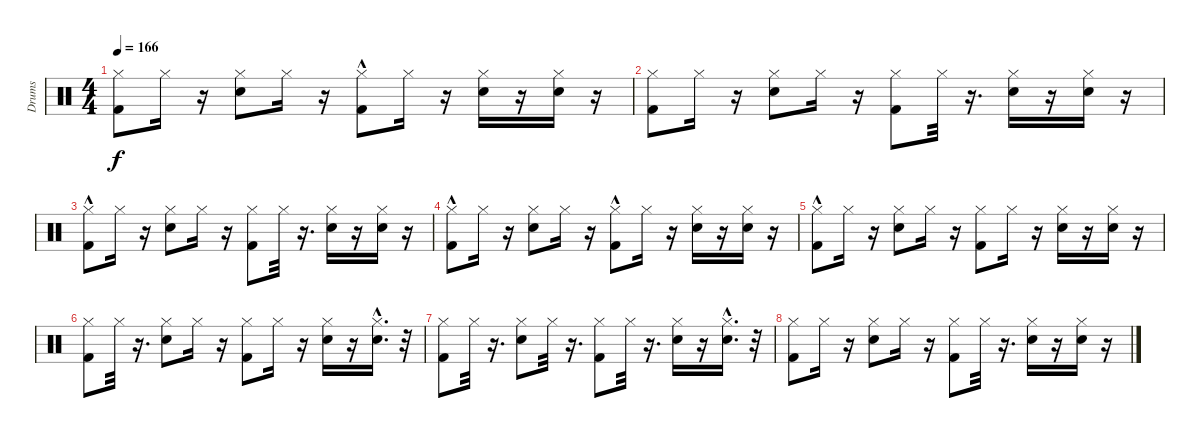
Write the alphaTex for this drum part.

\track ("Drums" "Drums") {instrument percussion}
\staff {score}
\articulation defaults
\ts (4 4)
\tempo 166
\clef neutral
\ks c
("Kick (hit) 2" "Hi-Hat (closed)").8{dy f} "Hi-Hat (closed)".16 r.16 ("Hi-Hat (closed)" "Snare (hit) 2").8 "Hi-Hat (closed)".16 r.16 ("Kick (hit) 2"{hac} "Hi-Hat (closed)").8 "Hi-Hat (closed)".16 r.16 ("Hi-Hat (closed)" "Snare (hit) 2").16 r.16 ("Hi-Hat (closed)" "Snare (hit) 2").16 r.16 |
("Kick (hit) 2" "Hi-Hat (closed)").8 "Hi-Hat (closed)".16 r.16 ("Hi-Hat (closed)" "Snare (hit) 2").8 "Hi-Hat (closed)".16 r.16 ("Kick (hit) 2" "Hi-Hat (closed)").8 "Hi-Hat (closed)".32 r.16{d} ("Hi-Hat (closed)" "Snare (hit) 2").16 r.16 ("Hi-Hat (closed)" "Snare (hit) 2").16 r.16 |
("Kick (hit) 2"{hac} "Hi-Hat (closed)").8 "Hi-Hat (closed)".16 r.16 ("Hi-Hat (closed)" "Snare (hit) 2").8 "Hi-Hat (closed)".16 r.16 ("Kick (hit) 2" "Hi-Hat (closed)").8 "Hi-Hat (closed)".32 r.16{d} ("Hi-Hat (closed)" "Snare (hit) 2").16 r.16 ("Hi-Hat (closed)" "Snare (hit) 2").16 r.16 |
("Kick (hit) 2"{hac} "Hi-Hat (closed)").8 "Hi-Hat (closed)".16 r.16 ("Hi-Hat (closed)" "Snare (hit) 2").8 "Hi-Hat (closed)".16 r.16 ("Kick (hit) 2"{hac} "Hi-Hat (closed)").8 "Hi-Hat (closed)".16 r.16 ("Hi-Hat (closed)" "Snare (hit) 2").16 r.16 ("Hi-Hat (closed)" "Snare (hit) 2").16 r.16 |
("Kick (hit) 2"{hac} "Hi-Hat (closed)").8 "Hi-Hat (closed)".16 r.16 ("Hi-Hat (closed)" "Snare (hit) 2").8 "Hi-Hat (closed)".16 r.16 ("Kick (hit) 2" "Hi-Hat (closed)").8 "Hi-Hat (closed)".16 r.16 ("Hi-Hat (closed)" "Snare (hit) 2").16 r.16 ("Hi-Hat (closed)" "Snare (hit) 2").16 r.16 |
("Kick (hit) 2" "Hi-Hat (closed)").8 "Hi-Hat (closed)".32 r.16{d} ("Hi-Hat (closed)" "Snare (hit) 2").8 "Hi-Hat (closed)".16 r.16 ("Kick (hit) 2" "Hi-Hat (closed)").8 "Hi-Hat (closed)".16 r.16 ("Hi-Hat (closed)" "Snare (hit) 2").16 r.16 ("Hi-Hat (closed)" "Snare (hit) 2"{hac}).16{d} r.32 |
("Kick (hit) 2" "Hi-Hat (closed)").8 "Hi-Hat (closed)".32 r.16{d} ("Hi-Hat (closed)" "Snare (hit) 2").8 "Hi-Hat (closed)".32 r.16{d} ("Kick (hit) 2" "Hi-Hat (closed)").8 "Hi-Hat (closed)".32 r.16{d} ("Hi-Hat (closed)" "Snare (hit) 2").16 r.16 ("Hi-Hat (closed)" "Snare (hit) 2"{hac}).16{d} r.32 |
("Kick (hit) 2" "Hi-Hat (closed)").8 "Hi-Hat (closed)".16 r.16 ("Hi-Hat (closed)" "Snare (hit) 2").8 "Hi-Hat (closed)".16 r.16 ("Kick (hit) 2" "Hi-Hat (closed)").8 "Hi-Hat (closed)".32 r.16{d} ("Hi-Hat (closed)" "Snare (hit) 2").16 r.16 ("Hi-Hat (closed)" "Snare (hit) 2").16 r.16
